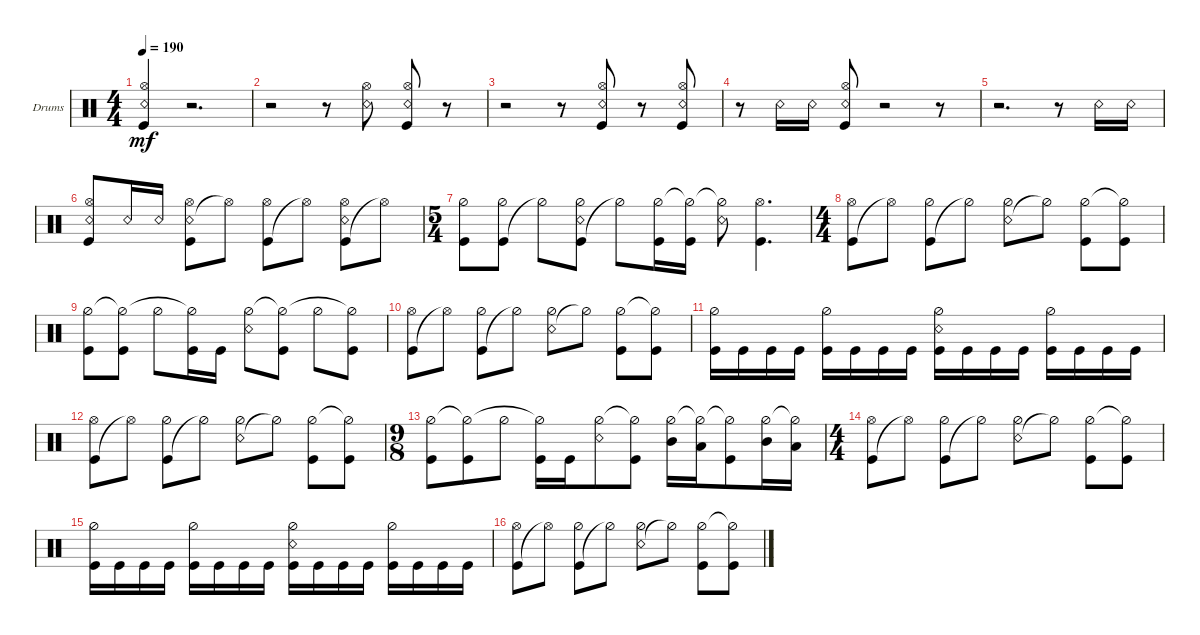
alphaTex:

\defaultSystemsLayout 4
\bracketExtendMode groupsimilarinstruments
\firstSystemTrackNameOrientation horizontal
\otherSystemsTrackNameOrientation horizontal
\track ("Drumkit" "Drums") {instrument percussion}
\staff {score}
\articulation defaults
\ts (4 4)
\tempo 190
\clef neutral
\scale
1.05675
\ks c
("Snare (rim shot)" "Hi-Hat (open)" "Kick (hit)").4{dy mf} r.2{d} |
\scale
0.943253 r.2 r.8 ("Snare (rim shot)" "Hi-Hat (open)").8 ("Snare (rim shot)" "Hi-Hat (open)" "Kick (hit)").8 r.8 |
\scale
1.02648 r.2 r.8 ("Snare (rim shot)" "Hi-Hat (open)" "Kick (hit)").8 r.8 ("Snare (rim shot)" "Hi-Hat (open)" "Kick (hit)").8 |
\scale
0.973518 r.8 "Snare (rim shot)".16 "Snare (rim shot)".16 ("Snare (rim shot)" "Hi-Hat (open)" "Kick (hit)").8 r.2 r.8 |
\scale
1.02648 r.2{d} r.8 "Snare (rim shot)".16 "Snare (rim shot)".16 |
\scale
0.973518 ("Snare (rim shot)" "Hi-Hat (open)" "Kick (hit)").8 "Snare (rim shot)".16 "Snare (rim shot)".16 ("Snare (rim shot)" "Kick (hit)" "Hi-Hat (open)").8 "Hi-Hat (open)"{t}.8 ("Kick (hit)" "Hi-Hat (open)").8 "Hi-Hat (open)"{t}.8 ("Kick (hit)" "Hi-Hat (open)" "Snare (rim shot)").8 "Hi-Hat (open)"{t}.8 |
\ts (5 4)
\scale
1.05675 ("Kick (hit)" "Hi-Hat (half)").8 ("Kick (hit)" "Hi-Hat (half)").8 "Hi-Hat (half)"{t}.8 ("Kick (hit)" "Hi-Hat (half)" "Snare (rim shot)").8 "Hi-Hat (half)"{t}.8 ("Kick (hit)" "Hi-Hat (half)").16 ("Kick (hit)" "Hi-Hat (half)"{t}).16 ("Snare (rim shot)" "Hi-Hat (half)"{t}).8 ("Kick (hit)" "Hi-Hat (open)").4{d} |
\ts (4 4)
\scale
0.943253 ("Kick (hit)" "Hi-Hat (open)").8 "Hi-Hat (open)"{t}.8 ("Kick (hit)" "Hi-Hat (half)").8 "Hi-Hat (half)"{t}.8 ("Snare (rim shot)" "Hi-Hat (half)").8 "Hi-Hat (half)"{t}.8 ("Kick (hit)" "Hi-Hat (half)").8 ("Kick (hit)" "Hi-Hat (half)"{t}).8 |
\scale
1.02648 ("Kick (hit)" "Hi-Hat (half)").8 ("Kick (hit)" "Hi-Hat (half)"{t}).8 "Hi-Hat (half)".8 ("Kick (hit)" "Hi-Hat (half)"{t}).16 "Kick (hit)".16 ("Snare (rim shot)" "Hi-Hat (half)").8 ("Kick (hit)" "Hi-Hat (half)"{t}).8 "Hi-Hat (half)".8 ("Kick (hit)" "Hi-Hat (half)"{t}).8 |
\scale
0.973518 ("Kick (hit)" "Hi-Hat (open)").8 "Hi-Hat (open)"{t}.8 ("Kick (hit)" "Hi-Hat (half)").8 "Hi-Hat (half)"{t}.8 ("Snare (rim shot)" "Hi-Hat (half)").8 "Hi-Hat (half)"{t}.8 ("Kick (hit)" "Hi-Hat (half)").8 ("Kick (hit)" "Hi-Hat (half)"{t}).8 |
\scale
1.02648 ("Kick (hit)" "Hi-Hat (half)").16 "Kick (hit)".16 "Kick (hit)".16 "Kick (hit)".16 ("Kick (hit)" "Hi-Hat (half)").16 "Kick (hit)".16 "Kick (hit)".16 "Kick (hit)".16 ("Kick (hit)" "Hi-Hat (half)" "Snare (rim shot)").16 "Kick (hit)".16 "Kick (hit)".16 "Kick (hit)".16 ("Kick (hit)" "Hi-Hat (half)").16 "Kick (hit)".16 "Kick (hit)".16 "Kick (hit)".16 |
\scale
0.973518 ("Kick (hit)" "Hi-Hat (open)").8 "Hi-Hat (open)"{t}.8 ("Kick (hit)" "Hi-Hat (half)").8 "Hi-Hat (half)"{t}.8 ("Snare (rim shot)" "Hi-Hat (half)").8 "Hi-Hat (half)"{t}.8 ("Kick (hit)" "Hi-Hat (half)").8 ("Kick (hit)" "Hi-Hat (half)"{t}).8 |
\ts (9 8)
\scale
1.05675 ("Kick (hit)" "Hi-Hat (half)").8 ("Kick (hit)" "Hi-Hat (half)"{t}).8 "Hi-Hat (half)".8 ("Kick (hit)" "Hi-Hat (half)"{t}).16 "Kick (hit)".16 ("Snare (rim shot)" "Hi-Hat (half)").8 ("Kick (hit)" "Hi-Hat (half)"{t}).8 ("Mid Tom (hit)" "Hi-Hat (half)").16 ("Low Tom (hit)" "Hi-Hat (half)"{t}).16 ("Kick (hit)" "Hi-Hat (half)"{t}).8 ("Mid Tom (hit)" "Hi-Hat (half)").16 ("Low Tom (hit)" "Hi-Hat (half)"{t}).16 |
\ts (4 4)
\scale
0.943253 ("Kick (hit)" "Hi-Hat (open)").8 "Hi-Hat (open)"{t}.8 ("Kick (hit)" "Hi-Hat (half)").8 "Hi-Hat (half)"{t}.8 ("Snare (rim shot)" "Hi-Hat (half)").8 "Hi-Hat (half)"{t}.8 ("Kick (hit)" "Hi-Hat (half)").8 ("Kick (hit)" "Hi-Hat (half)"{t}).8 |
\scale
1.02648 ("Kick (hit)" "Hi-Hat (half)").16 "Kick (hit)".16 "Kick (hit)".16 "Kick (hit)".16 ("Kick (hit)" "Hi-Hat (half)").16 "Kick (hit)".16 "Kick (hit)".16 "Kick (hit)".16 ("Kick (hit)" "Hi-Hat (half)" "Snare (rim shot)").16 "Kick (hit)".16 "Kick (hit)".16 "Kick (hit)".16 ("Kick (hit)" "Hi-Hat (half)").16 "Kick (hit)".16 "Kick (hit)".16 "Kick (hit)".16 |
\scale
0.973518 ("Kick (hit)" "Hi-Hat (open)").8 "Hi-Hat (open)"{t}.8 ("Kick (hit)" "Hi-Hat (half)").8 "Hi-Hat (half)"{t}.8 ("Snare (rim shot)" "Hi-Hat (half)").8 "Hi-Hat (half)"{t}.8 ("Kick (hit)" "Hi-Hat (half)").8 ("Kick (hit)" "Hi-Hat (half)"{t}).8
